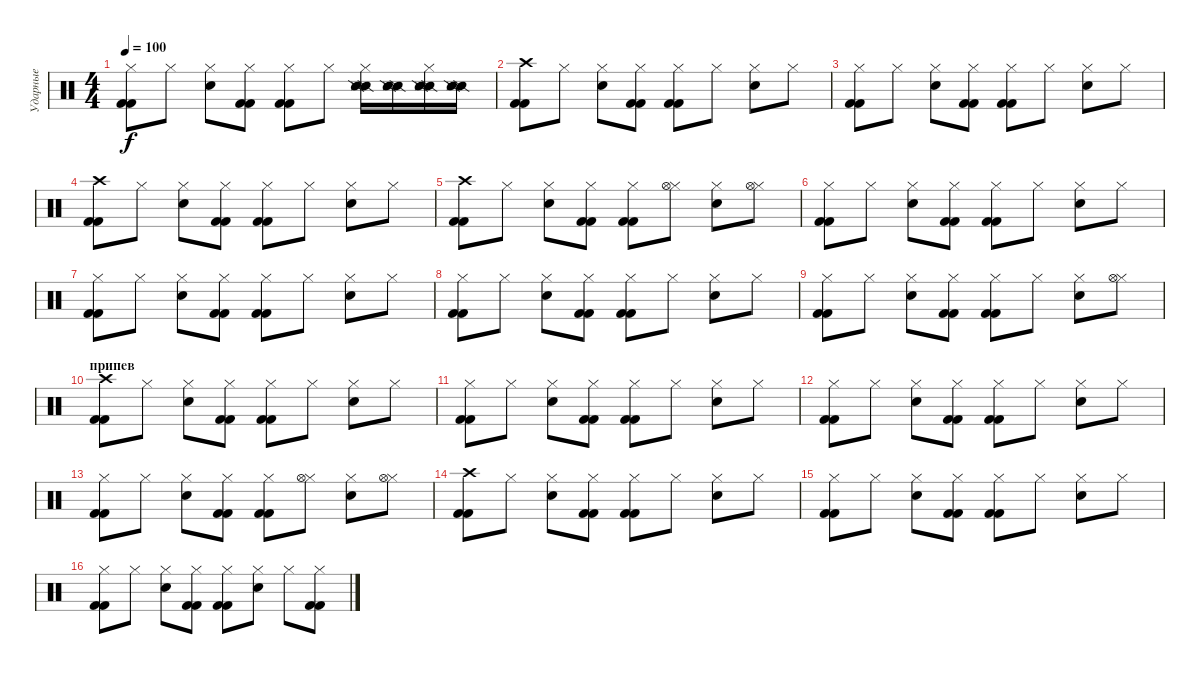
\track ("Ударные" "Ударные") {instrument percussion}
\staff {score}
\articulation defaults
\ts (4 4)
\tempo 100
\clef neutral
\ks c
("Hi-Hat (closed)" "Kick (hit) 2" "Kick (hit) 2").8{dy f} "Hi-Hat (closed)".8 ("Hi-Hat (closed)" "Hand Clap (hit)").8 ("Hi-Hat (closed)" "Kick (hit) 2" "Kick (hit) 2").8 ("Hi-Hat (closed)" "Kick (hit) 2" "Kick (hit) 2").8 "Hi-Hat (closed)".8 ("Hi-Hat (closed)" "Snare (side stick) 2" "Snare (side stick) 3" "Snare (side stick) 2").16 ("Snare (side stick) 2" "Snare (side stick) 3" "Snare (side stick) 2").16 ("Hi-Hat (closed)" "Snare (side stick) 2" "Snare (side stick) 3" "Snare (side stick) 2").16 ("Snare (side stick) 2" "Snare (side stick) 3" "Snare (side stick) 2").16 |
("Crash high (hit)" "Kick (hit) 2" "Kick (hit) 2").8 "Hi-Hat (closed)".8 ("Hi-Hat (closed)" "Hand Clap (hit)").8 ("Hi-Hat (closed)" "Kick (hit) 2" "Kick (hit) 2").8 ("Hi-Hat (closed)" "Kick (hit) 2" "Kick (hit) 2").8 "Hi-Hat (closed)".8 ("Hi-Hat (closed)" "Hand Clap (hit)").8 "Hi-Hat (closed)".8 |
("Hi-Hat (closed)" "Kick (hit) 2" "Kick (hit) 2").8 "Hi-Hat (closed)".8 ("Hi-Hat (closed)" "Hand Clap (hit)").8 ("Hi-Hat (closed)" "Kick (hit) 2" "Kick (hit) 2").8 ("Hi-Hat (closed)" "Kick (hit) 2" "Kick (hit) 2").8 "Hi-Hat (closed)".8 ("Hi-Hat (closed)" "Hand Clap (hit)").8 "Hi-Hat (closed)".8 |
("Crash high (hit)" "Kick (hit) 2" "Kick (hit) 2").8 "Hi-Hat (closed)".8 ("Hi-Hat (closed)" "Hand Clap (hit)").8 ("Hi-Hat (closed)" "Kick (hit) 2" "Kick (hit) 2").8 ("Hi-Hat (closed)" "Kick (hit) 2" "Kick (hit) 2").8 "Hi-Hat (closed)".8 ("Hi-Hat (closed)" "Hand Clap (hit)").8 "Hi-Hat (closed)".8 |
("Crash high (hit)" "Kick (hit) 2" "Kick (hit) 2").8 "Hi-Hat (closed)".8 ("Hi-Hat (closed)" "Hand Clap (hit)").8 ("Hi-Hat (closed)" "Kick (hit) 2" "Kick (hit) 2").8 ("Hi-Hat (closed)" "Kick (hit) 2" "Kick (hit) 2").8 ("Hi-Hat (closed)" "Hi-Hat (open)").8 ("Hi-Hat (closed)" "Hand Clap (hit)").8 ("Hi-Hat (closed)" "Hi-Hat (open)").8 |
("Hi-Hat (closed)" "Kick (hit) 2" "Kick (hit) 2").8 "Hi-Hat (closed)".8 ("Hi-Hat (closed)" "Hand Clap (hit)").8 ("Hi-Hat (closed)" "Kick (hit) 2" "Kick (hit) 2").8 ("Hi-Hat (closed)" "Kick (hit) 2" "Kick (hit) 2").8 "Hi-Hat (closed)".8 ("Hi-Hat (closed)" "Hand Clap (hit)").8 "Hi-Hat (closed)".8 |
("Hi-Hat (closed)" "Kick (hit) 2" "Kick (hit) 2").8 "Hi-Hat (closed)".8 ("Hi-Hat (closed)" "Hand Clap (hit)").8 ("Hi-Hat (closed)" "Kick (hit) 2" "Kick (hit) 2").8 ("Hi-Hat (closed)" "Kick (hit) 2" "Kick (hit) 2").8 "Hi-Hat (closed)".8 ("Hi-Hat (closed)" "Hand Clap (hit)").8 "Hi-Hat (closed)".8 |
("Hi-Hat (closed)" "Kick (hit) 2" "Kick (hit) 2").8 "Hi-Hat (closed)".8 ("Hi-Hat (closed)" "Hand Clap (hit)").8 ("Hi-Hat (closed)" "Kick (hit) 2" "Kick (hit) 2").8 ("Hi-Hat (closed)" "Kick (hit) 2" "Kick (hit) 2").8 "Hi-Hat (closed)".8 ("Hi-Hat (closed)" "Hand Clap (hit)").8 "Hi-Hat (closed)".8 |
("Hi-Hat (closed)" "Kick (hit) 2" "Kick (hit) 2").8 "Hi-Hat (closed)".8 ("Hi-Hat (closed)" "Hand Clap (hit)").8 ("Hi-Hat (closed)" "Kick (hit) 2" "Kick (hit) 2").8 ("Hi-Hat (closed)" "Kick (hit) 2" "Kick (hit) 2").8 "Hi-Hat (closed)".8 ("Hi-Hat (closed)" "Hand Clap (hit)").8 ("Hi-Hat (closed)" "Hi-Hat (open)").8 |
\section ("" "припев")
("Crash high (hit)" "Kick (hit) 2" "Kick (hit) 2").8 "Hi-Hat (closed)".8 ("Hi-Hat (closed)" "Snare (hit) 2").8 ("Hi-Hat (closed)" "Kick (hit) 2" "Kick (hit) 2").8 ("Hi-Hat (closed)" "Kick (hit) 2" "Kick (hit) 2").8 "Hi-Hat (closed)".8 ("Hi-Hat (closed)" "Snare (hit) 2").8 "Hi-Hat (closed)".8 |
("Hi-Hat (closed)" "Kick (hit) 2" "Kick (hit) 2").8 "Hi-Hat (closed)".8 ("Hi-Hat (closed)" "Snare (hit) 2").8 ("Hi-Hat (closed)" "Kick (hit) 2" "Kick (hit) 2").8 ("Hi-Hat (closed)" "Kick (hit) 2" "Kick (hit) 2").8 "Hi-Hat (closed)".8 ("Hi-Hat (closed)" "Snare (hit) 2").8 "Hi-Hat (closed)".8 |
("Hi-Hat (closed)" "Kick (hit) 2" "Kick (hit) 2").8 "Hi-Hat (closed)".8 ("Hi-Hat (closed)" "Snare (hit) 2").8 ("Hi-Hat (closed)" "Kick (hit) 2" "Kick (hit) 2").8 ("Hi-Hat (closed)" "Kick (hit) 2" "Kick (hit) 2").8 "Hi-Hat (closed)".8 ("Hi-Hat (closed)" "Snare (hit) 2").8 "Hi-Hat (closed)".8 |
("Hi-Hat (closed)" "Kick (hit) 2" "Kick (hit) 2").8 "Hi-Hat (closed)".8 ("Hi-Hat (closed)" "Snare (hit) 2").8 ("Hi-Hat (closed)" "Kick (hit) 2" "Kick (hit) 2").8 ("Hi-Hat (closed)" "Kick (hit) 2" "Kick (hit) 2").8 ("Hi-Hat (closed)" "Hi-Hat (open)").8 ("Hi-Hat (closed)" "Snare (hit) 2").8 ("Hi-Hat (closed)" "Hi-Hat (open)").8 |
("Crash high (hit)" "Kick (hit) 2" "Kick (hit) 2").8 "Hi-Hat (closed)".8 ("Hi-Hat (closed)" "Snare (hit) 2").8 ("Hi-Hat (closed)" "Kick (hit) 2" "Kick (hit) 2").8 ("Hi-Hat (closed)" "Kick (hit) 2" "Kick (hit) 2").8 "Hi-Hat (closed)".8 ("Hi-Hat (closed)" "Snare (hit) 2").8 "Hi-Hat (closed)".8 |
("Hi-Hat (closed)" "Kick (hit) 2" "Kick (hit) 2").8 "Hi-Hat (closed)".8 ("Hi-Hat (closed)" "Snare (hit) 2").8 ("Hi-Hat (closed)" "Kick (hit) 2" "Kick (hit) 2").8 ("Hi-Hat (closed)" "Kick (hit) 2" "Kick (hit) 2").8 "Hi-Hat (closed)".8 ("Hi-Hat (closed)" "Snare (hit) 2").8 "Hi-Hat (closed)".8 |
("Hi-Hat (closed)" "Kick (hit) 2" "Kick (hit) 2").8 "Hi-Hat (closed)".8 ("Hi-Hat (closed)" "Snare (hit) 2").8 ("Hi-Hat (closed)" "Kick (hit) 2" "Kick (hit) 2").8 ("Hi-Hat (closed)" "Kick (hit) 2" "Kick (hit) 2").8 ("Hi-Hat (closed)" "Snare (hit) 2").8 "Hi-Hat (closed)".8 ("Hi-Hat (closed)" "Kick (hit) 2" "Kick (hit) 2").8
